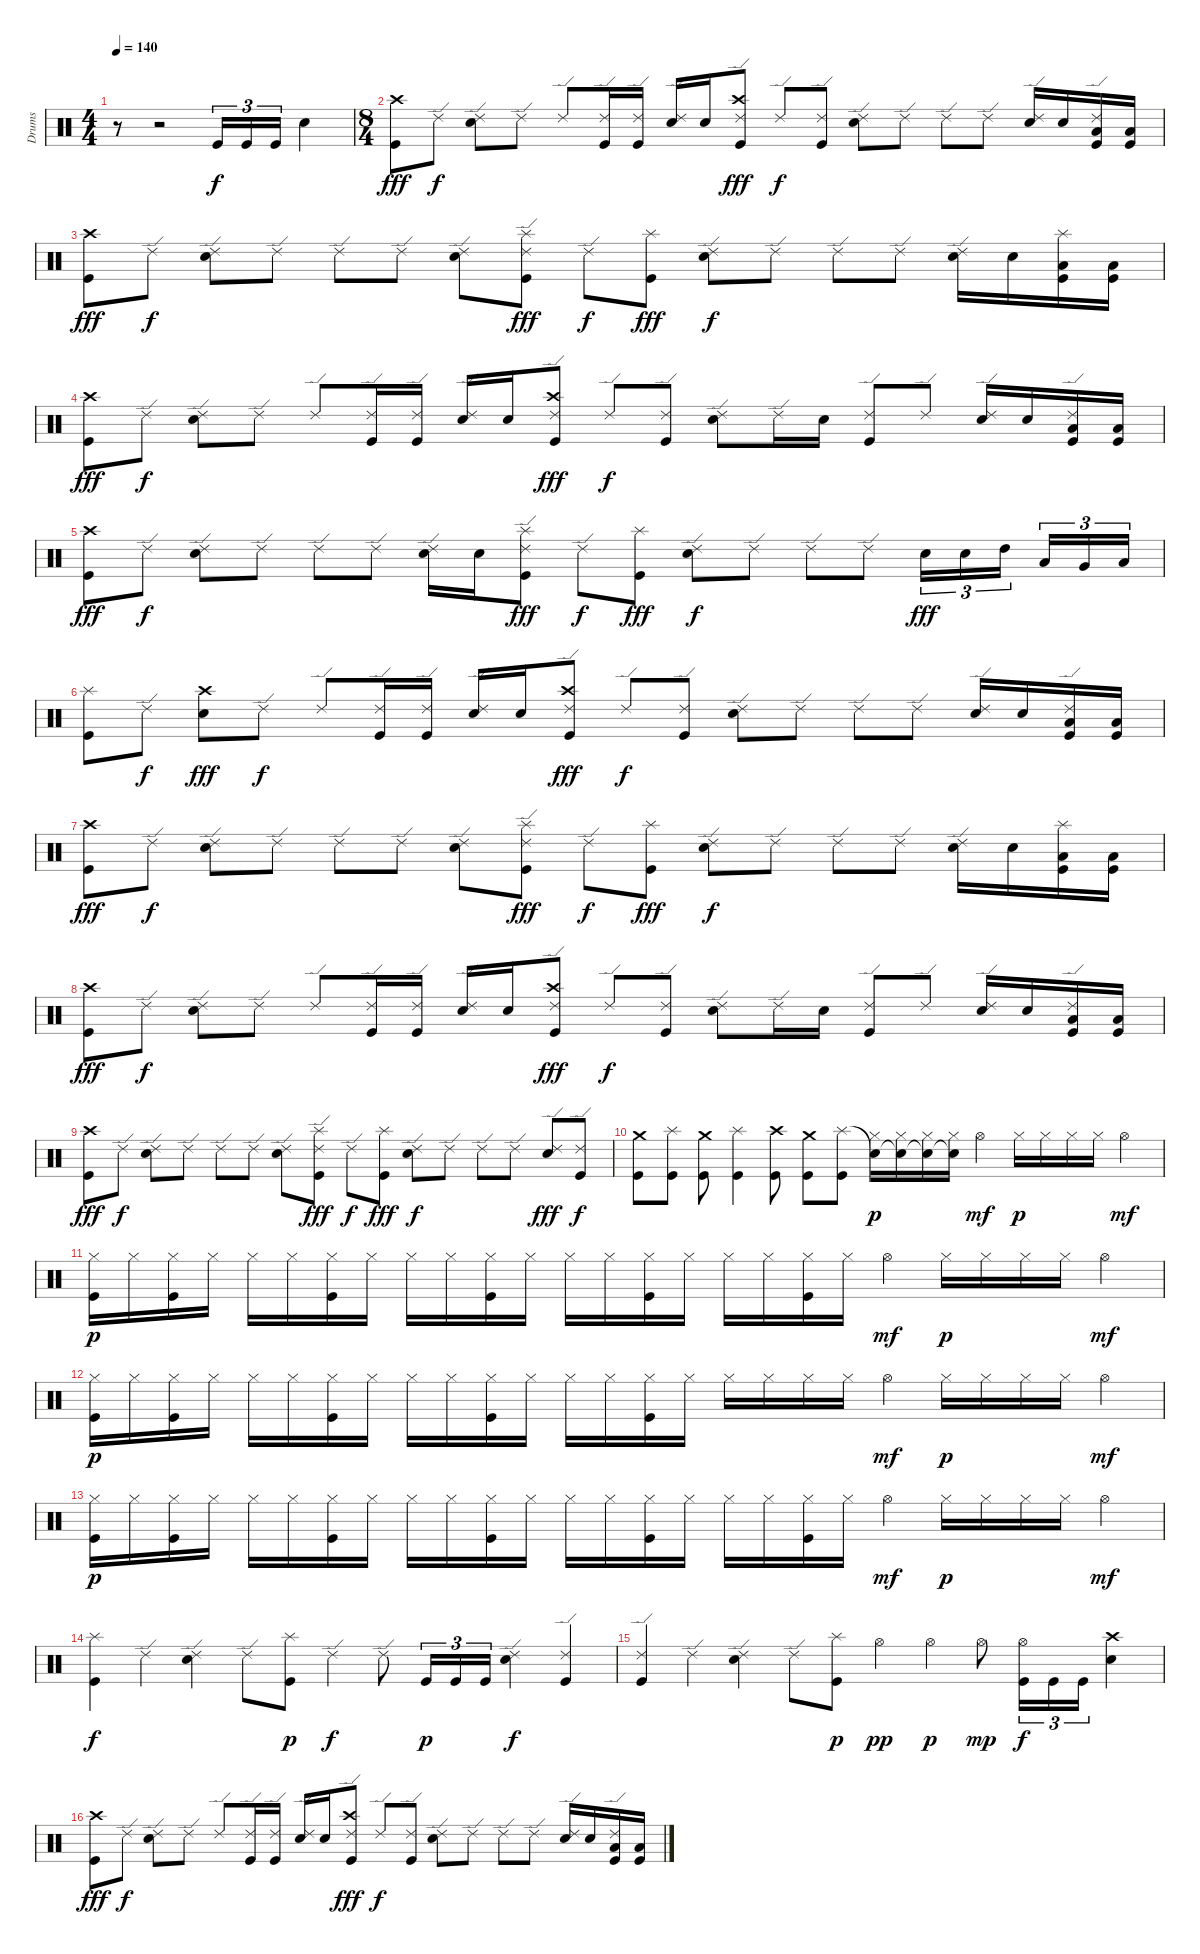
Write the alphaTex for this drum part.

\track ("Drums" "Drums") {instrument percussion}
\staff {score}
\articulation defaults
\ts (4 4)
\tempo 140
\clef neutral
\ks c
r.8{dy f} r.2 "Kick (hit)".16{tu (3 2)} "Kick (hit)".16{tu (3 2)} "Kick (hit)".16{tu (3 2)} "Snare (hit) 2".4 |
\ts (8 4)
("Crash high (hit)" "Kick (hit)").8{dy fff} "Ride (edge) 2".8{dy f} ("Ride (edge) 2" "Snare (hit) 2").8 "Ride (edge) 2".8 "Ride (edge) 2".8 ("Ride (edge) 2" "Kick (hit)").16 ("Ride (edge) 2" "Kick (hit)").16 ("Ride (edge) 2" "Snare (hit) 2").16 "Snare (hit) 2".16 ("Crash high (hit)" "Kick (hit)" "Ride (edge) 2").8{dy fff} "Ride (edge) 2".8{dy f} ("Ride (edge) 2" "Kick (hit)").8 ("Ride (edge) 2" "Snare (hit) 2").8 "Ride (edge) 2".8 "Ride (edge) 2".8 "Ride (edge) 2".8 ("Ride (edge) 2" "Snare (hit) 2").16 "Snare (hit) 2".16 ("Ride (edge) 2" "Low Tom (hit)" "Kick (hit)").16 ("Low Floor Tom (hit)" "Kick (hit)").16 |
("Crash high (hit)" "Kick (hit)").8{dy fff} "Ride (edge) 2".8{dy f} ("Ride (edge) 2" "Snare (hit) 2").8 "Ride (edge) 2".8 "Ride (edge) 2".8 "Ride (edge) 2".8 ("Ride (edge) 2" "Snare (hit) 2").8 ("Splash (hit)" "Kick (hit)" "Ride (edge) 2").8{dy fff} "Ride (edge) 2".8{dy f} ("Splash (hit)" "Kick (hit)").8{dy fff} ("Ride (edge) 2" "Snare (hit) 2").8{dy f} "Ride (edge) 2".8 "Ride (edge) 2".8 "Ride (edge) 2".8 ("Ride (edge) 2" "Snare (hit) 2").16 "Snare (hit) 2".16 ("Splash (hit)" "Low Tom (hit)" "Kick (hit)").16 ("Low Floor Tom (hit)" "Kick (hit)").16 |
("Crash high (hit)" "Kick (hit)").8{dy fff} "Ride (edge) 2".8{dy f} ("Ride (edge) 2" "Snare (hit) 2").8 "Ride (edge) 2".8 "Ride (edge) 2".8 ("Ride (edge) 2" "Kick (hit)").16 ("Ride (edge) 2" "Kick (hit)").16 ("Ride (edge) 2" "Snare (hit) 2").16 "Snare (hit) 2".16 ("Crash high (hit)" "Kick (hit)" "Ride (edge) 2").8{dy fff} "Ride (edge) 2".8{dy f} ("Ride (edge) 2" "Kick (hit)").8 ("Ride (edge) 2" "Snare (hit) 2").8 "Ride (edge) 2".16 "Snare (hit) 2".16 ("Ride (edge) 2" "Kick (hit)").8 "Ride (edge) 2".8 ("Ride (edge) 2" "Snare (hit) 2").16 "Snare (hit) 2".16 ("Ride (edge) 2" "Low Tom (hit)" "Kick (hit)").16 ("Low Floor Tom (hit)" "Kick (hit)").16 |
("Crash high (hit)" "Kick (hit)").8{dy fff} "Ride (edge) 2".8{dy f} ("Ride (edge) 2" "Snare (hit) 2").8 "Ride (edge) 2".8 "Ride (edge) 2".8 "Ride (edge) 2".8 ("Ride (edge) 2" "Snare (hit) 2").16 "Snare (hit) 2".16 ("Splash (hit)" "Kick (hit)" "Ride (edge) 2").8{dy fff} "Ride (edge) 2".8{dy f} ("Splash (hit)" "Kick (hit)").8{dy fff} ("Ride (edge) 2" "Snare (hit) 2").8{dy f} "Ride (edge) 2".8 "Ride (edge) 2".8 "Ride (edge) 2".8 "Snare (hit) 2".16{tu (3 2) dy fff} "Snare (hit) 2".16{tu (3 2)} "High Tom (hit)".16{tu (3 2)} "Low Tom (hit)".16{tu (3 2)} "Very Low Tom (hit)".16{tu (3 2)} "Low Floor Tom (hit)".16{tu (3 2)} |
("Splash (hit)" "Kick (hit)").8 "Ride (edge) 2".8{dy f} ("Crash high (hit)" "Snare (hit) 2").8{dy fff} "Ride (edge) 2".8{dy f} "Ride (edge) 2".8 ("Ride (edge) 2" "Kick (hit)").16 ("Ride (edge) 2" "Kick (hit)").16 ("Ride (edge) 2" "Snare (hit) 2").16 "Snare (hit) 2".16 ("Crash high (hit)" "Kick (hit)" "Ride (edge) 2").8{dy fff} "Ride (edge) 2".8{dy f} ("Ride (edge) 2" "Kick (hit)").8 ("Ride (edge) 2" "Snare (hit) 2").8 "Ride (edge) 2".8 "Ride (edge) 2".8 "Ride (edge) 2".8 ("Ride (edge) 2" "Snare (hit) 2").16 "Snare (hit) 2".16 ("Ride (edge) 2" "Low Tom (hit)" "Kick (hit)").16 ("Low Floor Tom (hit)" "Kick (hit)").16 |
("Crash high (hit)" "Kick (hit)").8{dy fff} "Ride (edge) 2".8{dy f} ("Ride (edge) 2" "Snare (hit) 2").8 "Ride (edge) 2".8 "Ride (edge) 2".8 "Ride (edge) 2".8 ("Ride (edge) 2" "Snare (hit) 2").8 ("Splash (hit)" "Kick (hit)" "Ride (edge) 2").8{dy fff} "Ride (edge) 2".8{dy f} ("Splash (hit)" "Kick (hit)").8{dy fff} ("Ride (edge) 2" "Snare (hit) 2").8{dy f} "Ride (edge) 2".8 "Ride (edge) 2".8 "Ride (edge) 2".8 ("Ride (edge) 2" "Snare (hit) 2").16 "Snare (hit) 2".16 ("Splash (hit)" "Low Tom (hit)" "Kick (hit)").16 ("Low Floor Tom (hit)" "Kick (hit)").16 |
("Crash high (hit)" "Kick (hit)").8{dy fff} "Ride (edge) 2".8{dy f} ("Ride (edge) 2" "Snare (hit) 2").8 "Ride (edge) 2".8 "Ride (edge) 2".8 ("Ride (edge) 2" "Kick (hit)").16 ("Ride (edge) 2" "Kick (hit)").16 ("Ride (edge) 2" "Snare (hit) 2").16 "Snare (hit) 2".16 ("Crash high (hit)" "Kick (hit)" "Ride (edge) 2").8{dy fff} "Ride (edge) 2".8{dy f} ("Ride (edge) 2" "Kick (hit)").8 ("Ride (edge) 2" "Snare (hit) 2").8 "Ride (edge) 2".16 "Snare (hit) 2".16 ("Ride (edge) 2" "Kick (hit)").8 "Ride (edge) 2".8 ("Ride (edge) 2" "Snare (hit) 2").16 "Snare (hit) 2".16 ("Ride (edge) 2" "Low Tom (hit)" "Kick (hit)").16 ("Low Floor Tom (hit)" "Kick (hit)").16 |
("Crash high (hit)" "Kick (hit)").8{dy fff} "Ride (edge) 2".8{dy f} ("Ride (edge) 2" "Snare (hit) 2").8 "Ride (edge) 2".8 "Ride (edge) 2".8 "Ride (edge) 2".8 ("Ride (edge) 2" "Snare (hit) 2").8 ("Splash (hit)" "Kick (hit)" "Ride (edge) 2").8{dy fff} "Ride (edge) 2".8{dy f} ("Splash (hit)" "Kick (hit)").8{dy fff} ("Ride (edge) 2" "Snare (hit) 2").8{dy f} "Ride (edge) 2".8 "Ride (edge) 2".8 "Ride (edge) 2".8 ("Ride (edge) 2" "Snare (hit) 2").8{dy fff} ("Ride (edge) 2" "Kick (hit)").8{dy f} |
("Crash medium (hit)" "Kick (hit)").8 ("Splash (hit)" "Kick (hit)").8 ("Crash medium (hit)" "Kick (hit)").8 ("Splash (hit)" "Kick (hit)").4 ("Crash high (hit)" "Kick (hit)").8 ("Crash medium (hit)" "Kick (hit)").8 ("Splash (hit)" "Kick (hit)").8 ("Snare (hit)"{t} "Hi-Hat (closed)").16{dy p} ("Snare (hit)"{t} "Hi-Hat (closed)").16 ("Snare (hit)"{t} "Hi-Hat (closed)").16 ("Snare (hit)"{t} "Hi-Hat (closed)").16 "Hi-Hat (open)".4{dy mf} "Hi-Hat (closed)".16{dy p} "Hi-Hat (closed)".16 "Hi-Hat (closed)".16 "Hi-Hat (closed)".16 "Hi-Hat (open)".4{dy mf} |
("Hi-Hat (closed)" "Kick (hit)").16{dy p} "Hi-Hat (closed)".16 ("Hi-Hat (closed)" "Kick (hit)").16 "Hi-Hat (closed)".16 "Hi-Hat (closed)".16 "Hi-Hat (closed)".16 ("Hi-Hat (closed)" "Kick (hit)").16 "Hi-Hat (closed)".16 "Hi-Hat (closed)".16 "Hi-Hat (closed)".16 ("Hi-Hat (closed)" "Kick (hit)").16 "Hi-Hat (closed)".16 "Hi-Hat (closed)".16 "Hi-Hat (closed)".16 ("Hi-Hat (closed)" "Kick (hit)").16 "Hi-Hat (closed)".16 "Hi-Hat (closed)".16 "Hi-Hat (closed)".16 ("Hi-Hat (closed)" "Kick (hit)").16 "Hi-Hat (closed)".16 "Hi-Hat (open)".4{dy mf} "Hi-Hat (closed)".16{dy p} "Hi-Hat (closed)".16 "Hi-Hat (closed)".16 "Hi-Hat (closed)".16 "Hi-Hat (open)".4{dy mf} |
("Hi-Hat (closed)" "Kick (hit)").16{dy p} "Hi-Hat (closed)".16 ("Hi-Hat (closed)" "Kick (hit)").16 "Hi-Hat (closed)".16 "Hi-Hat (closed)".16 "Hi-Hat (closed)".16 ("Hi-Hat (closed)" "Kick (hit)").16 "Hi-Hat (closed)".16 "Hi-Hat (closed)".16 "Hi-Hat (closed)".16 ("Hi-Hat (closed)" "Kick (hit)").16 "Hi-Hat (closed)".16 "Hi-Hat (closed)".16 "Hi-Hat (closed)".16 ("Hi-Hat (closed)" "Kick (hit)").16 "Hi-Hat (closed)".16 "Hi-Hat (closed)".16 "Hi-Hat (closed)".16 "Hi-Hat (closed)".16 "Hi-Hat (closed)".16 "Hi-Hat (open)".4{dy mf} "Hi-Hat (closed)".16{dy p} "Hi-Hat (closed)".16 "Hi-Hat (closed)".16 "Hi-Hat (closed)".16 "Hi-Hat (open)".4{dy mf} |
("Hi-Hat (closed)" "Kick (hit)").16{dy p} "Hi-Hat (closed)".16 ("Hi-Hat (closed)" "Kick (hit)").16 "Hi-Hat (closed)".16 "Hi-Hat (closed)".16 "Hi-Hat (closed)".16 ("Hi-Hat (closed)" "Kick (hit)").16 "Hi-Hat (closed)".16 "Hi-Hat (closed)".16 "Hi-Hat (closed)".16 ("Hi-Hat (closed)" "Kick (hit)").16 "Hi-Hat (closed)".16 "Hi-Hat (closed)".16 "Hi-Hat (closed)".16 ("Hi-Hat (closed)" "Kick (hit)").16 "Hi-Hat (closed)".16 "Hi-Hat (closed)".16 "Hi-Hat (closed)".16 ("Hi-Hat (closed)" "Kick (hit)").16 "Hi-Hat (closed)".16 "Hi-Hat (open)".4{dy mf} "Hi-Hat (closed)".16{dy p} "Hi-Hat (closed)".16 "Hi-Hat (closed)".16 "Hi-Hat (closed)".16 "Hi-Hat (open)".4{dy mf} |
("Splash (hit)" "Kick (hit)").4{dy f} "Ride (edge) 2".4 ("Ride (edge) 2" "Snare (hit) 2").4 "Ride (edge) 2".8 ("Splash (hit)" "Kick (hit)").8{dy p} "Ride (edge) 2".4{dy f} "Ride (edge) 2".8 "Kick (hit)".16{tu (3 2) dy p} "Kick (hit)".16{tu (3 2)} "Kick (hit)".16{tu (3 2)} ("Ride (edge) 2" "Snare (hit) 2").4{dy f} ("Ride (edge) 2" "Kick (hit)").4 |
("Ride (edge) 2" "Kick (hit)").4 "Ride (edge) 2".4 ("Ride (edge) 2" "Snare (hit) 2").4 "Ride (edge) 2".8 ("Splash (hit)" "Kick (hit)").8{dy p} "Hi-Hat (open)".4{dy pp} "Hi-Hat (open)".4{dy p} "Hi-Hat (open)".8{dy mp} ("Hi-Hat (open)" "Kick (hit)").16{tu (3 2) dy f} "Kick (hit)".16{tu (3 2)} "Kick (hit)".16{tu (3 2)} ("Crash high (hit)" "Snare (hit) 2").4 |
("Crash high (hit)" "Kick (hit)").8{dy fff} "Ride (edge) 2".8{dy f} ("Ride (edge) 2" "Snare (hit) 2").8 "Ride (edge) 2".8 "Ride (edge) 2".8 ("Ride (edge) 2" "Kick (hit)").16 ("Ride (edge) 2" "Kick (hit)").16 ("Ride (edge) 2" "Snare (hit) 2").16 "Snare (hit) 2".16 ("Crash high (hit)" "Kick (hit)" "Ride (edge) 2").8{dy fff} "Ride (edge) 2".8{dy f} ("Ride (edge) 2" "Kick (hit)").8 ("Ride (edge) 2" "Snare (hit) 2").8 "Ride (edge) 2".8 "Ride (edge) 2".8 "Ride (edge) 2".8 ("Ride (edge) 2" "Snare (hit) 2").16 "Snare (hit) 2".16 ("Ride (edge) 2" "Low Tom (hit)" "Kick (hit)").16 ("Low Floor Tom (hit)" "Kick (hit)").16
